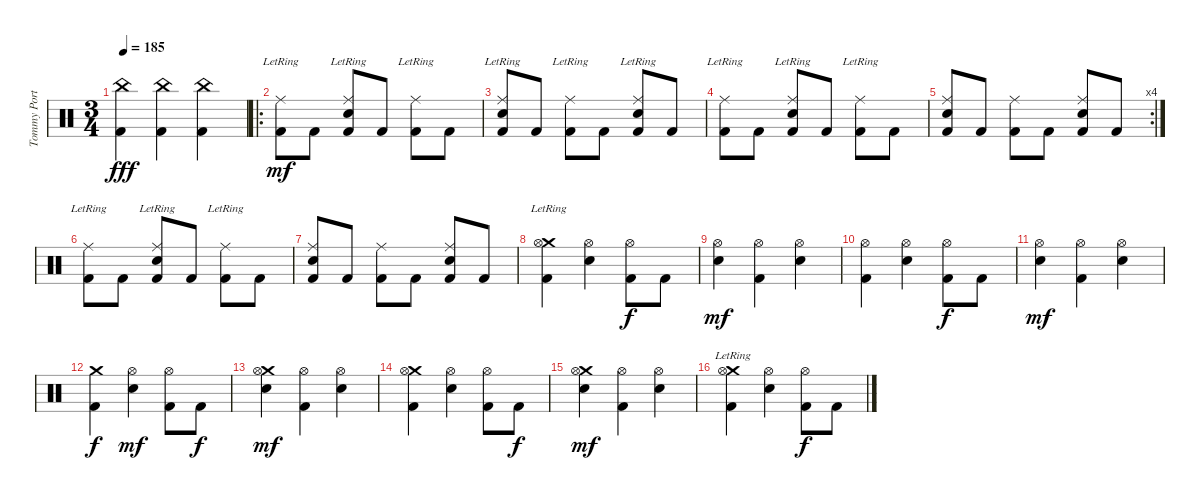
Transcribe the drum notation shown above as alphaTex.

\track ("Tommy Portino" "Tommy Port") {instrument percussion}
\staff {score}
\articulation defaults
\ts (3 4)
\tempo 185
\clef neutral
\ks c
("China (hit)" "Kick (hit) 2").4{dy fff} ("China (hit)" "Kick (hit) 2").4 ("China (hit)" "Kick (hit) 2").4 |
\ro
("Ride (middle)"{lr} "Kick (hit) 2").8{dy mf} "Kick (hit) 2".8 ("Ride (middle)"{lr} "Snare (hit) 2" "Kick (hit) 2").8 "Kick (hit) 2".8 ("Ride (middle)"{lr} "Kick (hit) 2").8 "Kick (hit) 2".8 |
("Ride (middle)"{lr} "Snare (hit) 2" "Kick (hit) 2").8 "Kick (hit) 2".8 ("Ride (middle)"{lr} "Kick (hit) 2").8 "Kick (hit) 2".8 ("Ride (middle)"{lr} "Snare (hit) 2" "Kick (hit) 2").8 "Kick (hit) 2".8 |
("Ride (middle)"{lr} "Kick (hit) 2").8 "Kick (hit) 2".8 ("Ride (middle)"{lr} "Snare (hit) 2" "Kick (hit) 2").8 "Kick (hit) 2".8 ("Ride (middle)"{lr} "Kick (hit) 2").8 "Kick (hit) 2".8 |
\rc 4
("Ride (middle)" "Snare (hit) 2" "Kick (hit) 2").8 "Kick (hit) 2".8 ("Ride (middle)" "Kick (hit) 2").8 "Kick (hit) 2".8 ("Ride (middle)" "Snare (hit) 2" "Kick (hit) 2").8 "Kick (hit) 2".8 |
("Ride (middle)"{lr} "Kick (hit) 2").8 "Kick (hit) 2".8 ("Ride (middle)"{lr} "Snare (hit) 2" "Kick (hit) 2").8 "Kick (hit) 2".8 ("Ride (middle)"{lr} "Kick (hit) 2").8 "Kick (hit) 2".8 |
("Ride (middle)" "Snare (hit) 2" "Kick (hit) 2").8 "Kick (hit) 2".8 ("Ride (middle)" "Kick (hit) 2").8 "Kick (hit) 2".8 ("Ride (middle)" "Snare (hit) 2" "Kick (hit) 2").8 "Kick (hit) 2".8 |
("Crash medium (hit)"{lr} "Hi-Hat (open)" "Kick (hit) 2").4 ("Hi-Hat (open)" "Snare (hit) 2").4 ("Hi-Hat (open)" "Kick (hit) 2").8{dy f} "Kick (hit) 2".8 |
("Hi-Hat (open)" "Snare (hit) 2").4{dy mf} ("Hi-Hat (open)" "Kick (hit) 2").4 ("Hi-Hat (open)" "Snare (hit) 2").4 |
("Hi-Hat (open)" "Kick (hit) 2").4 ("Hi-Hat (open)" "Snare (hit) 2").4 ("Hi-Hat (open)" "Kick (hit) 2").8{dy f} "Kick (hit) 2".8 |
("Hi-Hat (open)" "Snare (hit) 2").4{dy mf} ("Hi-Hat (open)" "Kick (hit) 2").4 ("Hi-Hat (open)" "Snare (hit) 2").4 |
("Crash medium (hit)" "Kick (hit) 2").4{dy f} ("Snare (hit) 2" "Hi-Hat (open)").4{dy mf} ("Hi-Hat (open)" "Kick (hit) 2").8 "Kick (hit) 2".8{dy f} |
("Crash medium (hit)" "Snare (hit) 2" "Hi-Hat (open)").4{dy mf} ("Hi-Hat (open)" "Kick (hit) 2").4 ("Snare (hit) 2" "Hi-Hat (open)").4 |
("Crash medium (hit)" "Hi-Hat (open)" "Kick (hit) 2").4 ("Snare (hit) 2" "Hi-Hat (open)").4 ("Hi-Hat (open)" "Kick (hit) 2").8 "Kick (hit) 2".8{dy f} |
("Crash medium (hit)" "Snare (hit) 2" "Hi-Hat (open)").4{dy mf} ("Hi-Hat (open)" "Kick (hit) 2").4 ("Snare (hit) 2" "Hi-Hat (open)").4 |
("Crash medium (hit)"{lr} "Hi-Hat (open)" "Kick (hit) 2").4 ("Hi-Hat (open)" "Snare (hit) 2").4 ("Hi-Hat (open)" "Kick (hit) 2").8{dy f} "Kick (hit) 2".8
